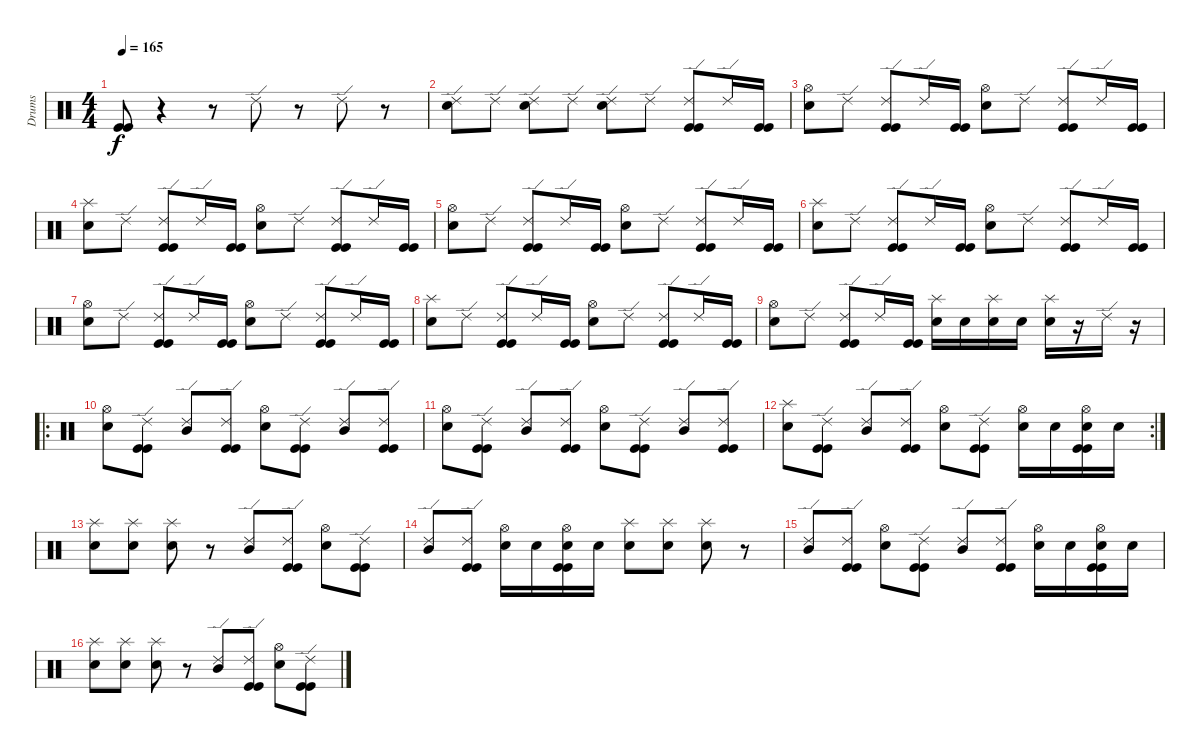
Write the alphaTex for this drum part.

\track ("Drums" "Drums") {instrument percussion}
\staff {score}
\articulation defaults
\ts (4 4)
\tempo 165
\clef neutral
\ks c
("Kick (hit)" "Kick (hit)").8{dy f} r.4 r.8 "Ride (edge) 2".8 r.8 "Ride (edge) 2".8 r.8 |
("Ride (edge) 2" "Snare (hit) 2").8 "Ride (edge) 2".8 ("Ride (edge) 2" "Snare (hit) 2").8 "Ride (edge) 2".8 ("Ride (edge) 2" "Snare (hit) 2").8 "Ride (edge) 2".8 ("Ride (edge) 2" "Kick (hit)" "Kick (hit)").8 "Ride (edge) 2".16 ("Kick (hit)" "Kick (hit)").16 |
("Hi-Hat (open)" "Snare (hit) 2").8 "Ride (edge) 2".8 ("Ride (edge) 2" "Kick (hit)" "Kick (hit)").8 "Ride (edge) 2".16 ("Kick (hit)" "Kick (hit)").16 ("Hi-Hat (open)" "Snare (hit) 2").8 "Ride (edge) 2".8 ("Ride (edge) 2" "Kick (hit)" "Kick (hit)").8 "Ride (edge) 2".16 ("Kick (hit)" "Kick (hit)").16 |
("Splash (hit)" "Snare (hit) 2").8 "Ride (edge) 2".8 ("Ride (edge) 2" "Kick (hit)" "Kick (hit)").8 "Ride (edge) 2".16 ("Kick (hit)" "Kick (hit)").16 ("Hi-Hat (open)" "Snare (hit) 2").8 "Ride (edge) 2".8 ("Ride (edge) 2" "Kick (hit)" "Kick (hit)").8 "Ride (edge) 2".16 ("Kick (hit)" "Kick (hit)").16 |
("Hi-Hat (open)" "Snare (hit) 2").8 "Ride (edge) 2".8 ("Ride (edge) 2" "Kick (hit)" "Kick (hit)").8 "Ride (edge) 2".16 ("Kick (hit)" "Kick (hit)").16 ("Hi-Hat (open)" "Snare (hit) 2").8 "Ride (edge) 2".8 ("Ride (edge) 2" "Kick (hit)" "Kick (hit)").8 "Ride (edge) 2".16 ("Kick (hit)" "Kick (hit)").16 |
("Splash (hit)" "Snare (hit) 2").8 "Ride (edge) 2".8 ("Ride (edge) 2" "Kick (hit)" "Kick (hit)").8 "Ride (edge) 2".16 ("Kick (hit)" "Kick (hit)").16 ("Hi-Hat (open)" "Snare (hit) 2").8 "Ride (edge) 2".8 ("Ride (edge) 2" "Kick (hit)" "Kick (hit)").8 "Ride (edge) 2".16 ("Kick (hit)" "Kick (hit)").16 |
("Hi-Hat (open)" "Snare (hit) 2").8 "Ride (edge) 2".8 ("Ride (edge) 2" "Kick (hit)" "Kick (hit)").8 "Ride (edge) 2".16 ("Kick (hit)" "Kick (hit)").16 ("Hi-Hat (open)" "Snare (hit) 2").8 "Ride (edge) 2".8 ("Ride (edge) 2" "Kick (hit)" "Kick (hit)").8 "Ride (edge) 2".16 ("Kick (hit)" "Kick (hit)").16 |
("Splash (hit)" "Snare (hit) 2").8 "Ride (edge) 2".8 ("Ride (edge) 2" "Kick (hit)" "Kick (hit)").8 "Ride (edge) 2".16 ("Kick (hit)" "Kick (hit)").16 ("Hi-Hat (open)" "Snare (hit) 2").8 "Ride (edge) 2".8 ("Ride (edge) 2" "Kick (hit)" "Kick (hit)").8 "Ride (edge) 2".16 ("Kick (hit)" "Kick (hit)").16 |
("Hi-Hat (open)" "Snare (hit) 2").8 "Ride (edge) 2".8 ("Ride (edge) 2" "Kick (hit)" "Kick (hit)").8 "Ride (edge) 2".16 ("Kick (hit)" "Kick (hit)").16 ("Splash (hit)" "Snare (hit) 2").16 "Snare (hit) 2".16 ("Splash (hit)" "Snare (hit) 2").16 "Snare (hit) 2".16 ("Splash (hit)" "Snare (hit) 2").16 r.16 "Ride (edge) 2".16 r.16 |
\ro
("Hi-Hat (open)" "Snare (hit) 2").8 ("Ride (edge) 2" "Kick (hit)" "Kick (hit)").8 ("Ride (edge) 2" "Mid Tom (hit)").8 ("Ride (edge) 2" "Kick (hit)" "Kick (hit)").8 ("Hi-Hat (open)" "Snare (hit) 2").8 ("Ride (edge) 2" "Kick (hit)" "Kick (hit)").8 ("Ride (edge) 2" "Mid Tom (hit)").8 ("Ride (edge) 2" "Kick (hit)" "Kick (hit)").8 |
("Hi-Hat (open)" "Snare (hit) 2").8 ("Ride (edge) 2" "Kick (hit)" "Kick (hit)").8 ("Ride (edge) 2" "Mid Tom (hit)").8 ("Ride (edge) 2" "Kick (hit)" "Kick (hit)").8 ("Hi-Hat (open)" "Snare (hit) 2").8 ("Ride (edge) 2" "Kick (hit)" "Kick (hit)").8 ("Ride (edge) 2" "Mid Tom (hit)").8 ("Ride (edge) 2" "Kick (hit)" "Kick (hit)").8 |
\rc 2
("Splash (hit)" "Snare (hit) 2").8 ("Ride (edge) 2" "Kick (hit)" "Kick (hit)").8 ("Ride (edge) 2" "Mid Tom (hit)").8 ("Ride (edge) 2" "Kick (hit)" "Kick (hit)").8 ("Hi-Hat (open)" "Snare (hit) 2").8 ("Ride (edge) 2" "Kick (hit)" "Kick (hit)").8 ("Hi-Hat (open)" "Snare (hit) 2").16 "Snare (hit) 2".16 ("Hi-Hat (open)" "Snare (hit) 2" "Kick (hit)" "Kick (hit)").16 "Snare (hit) 2".16 |
("Splash (hit)" "Snare (hit) 2").8 ("Splash (hit)" "Snare (hit) 2").8 ("Splash (hit)" "Snare (hit) 2").8 r.8 ("Ride (edge) 2" "Mid Tom (hit)").8 ("Ride (edge) 2" "Kick (hit)" "Kick (hit)").8 ("Hi-Hat (open)" "Snare (hit) 2").8 ("Ride (edge) 2" "Kick (hit)" "Kick (hit)").8 |
("Ride (edge) 2" "Mid Tom (hit)").8 ("Ride (edge) 2" "Kick (hit)" "Kick (hit)").8 ("Hi-Hat (open)" "Snare (hit) 2").16 "Snare (hit) 2".16 ("Hi-Hat (open)" "Snare (hit) 2" "Kick (hit)" "Kick (hit)").16 "Snare (hit) 2".16 ("Splash (hit)" "Snare (hit) 2").8 ("Splash (hit)" "Snare (hit) 2").8 ("Splash (hit)" "Snare (hit) 2").8 r.8 |
("Ride (edge) 2" "Mid Tom (hit)").8 ("Ride (edge) 2" "Kick (hit)" "Kick (hit)").8 ("Hi-Hat (open)" "Snare (hit) 2").8 ("Ride (edge) 2" "Kick (hit)" "Kick (hit)").8 ("Ride (edge) 2" "Mid Tom (hit)").8 ("Ride (edge) 2" "Kick (hit)" "Kick (hit)").8 ("Hi-Hat (open)" "Snare (hit) 2").16 "Snare (hit) 2".16 ("Hi-Hat (open)" "Snare (hit) 2" "Kick (hit)" "Kick (hit)").16 "Snare (hit) 2".16 |
("Splash (hit)" "Snare (hit) 2").8 ("Splash (hit)" "Snare (hit) 2").8 ("Splash (hit)" "Snare (hit) 2").8 r.8 ("Ride (edge) 2" "Mid Tom (hit)").8 ("Ride (edge) 2" "Kick (hit)" "Kick (hit)").8 ("Hi-Hat (open)" "Snare (hit) 2").8 ("Ride (edge) 2" "Kick (hit)" "Kick (hit)").8
